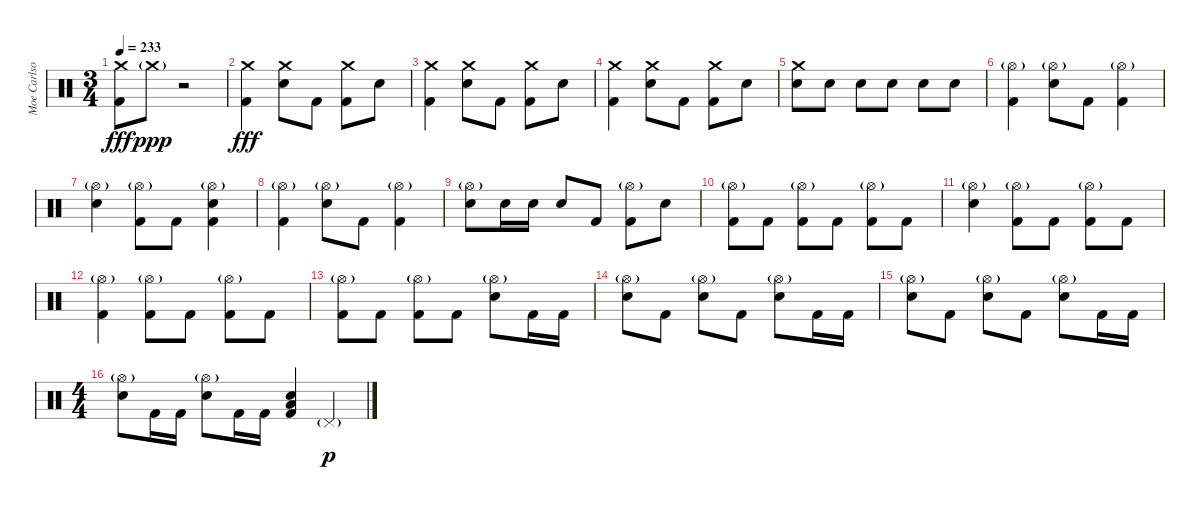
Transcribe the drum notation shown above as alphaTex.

\track ("Moe Carlson" "Moe Carlso") {instrument percussion}
\staff {score}
\articulation defaults
\ts (3 4)
\tempo 233
\clef neutral
\ks c
("Crash medium (hit)" "Kick (hit) 2").8{dy fff} "Crash medium (hit)"{g}.8{dy ppp} r.2 |
("Crash medium (hit)" "Kick (hit) 2").4{dy fff} ("Crash medium (hit)" "Electric Snare (hit)").8 "Kick (hit) 2".8 ("Crash medium (hit)" "Kick (hit) 2").8 "Electric Snare (hit)".8 |
("Crash medium (hit)" "Kick (hit) 2").4 ("Crash medium (hit)" "Electric Snare (hit)").8 "Kick (hit) 2".8 ("Crash medium (hit)" "Kick (hit) 2").8 "Electric Snare (hit)".8 |
("Crash medium (hit)" "Kick (hit) 2").4 ("Crash medium (hit)" "Electric Snare (hit)").8 "Kick (hit) 2".8 ("Crash medium (hit)" "Kick (hit) 2").8 "Electric Snare (hit)".8 |
("Crash medium (hit)" "Electric Snare (hit)").8 "Electric Snare (hit)".8 "Electric Snare (hit)".8 "Electric Snare (hit)".8 "Electric Snare (hit)".8 "Electric Snare (hit)".8 |
("Hi-Hat (open)"{g} "Kick (hit) 2").4 ("Hi-Hat (open)"{g} "Electric Snare (hit)").8 "Kick (hit) 2".8 ("Hi-Hat (open)"{g} "Kick (hit) 2").4 |
("Hi-Hat (open)"{g} "Electric Snare (hit)").4 ("Hi-Hat (open)"{g} "Kick (hit) 2").8 "Kick (hit) 2".8 ("Hi-Hat (open)"{g} "Electric Snare (hit)" "Kick (hit) 2").4 |
("Hi-Hat (open)"{g} "Kick (hit) 2").4 ("Hi-Hat (open)"{g} "Electric Snare (hit)").8 "Kick (hit) 2".8 ("Hi-Hat (open)"{g} "Kick (hit) 2").4 |
("Hi-Hat (open)"{g} "Electric Snare (hit)").8 "Electric Snare (hit)".16 "Electric Snare (hit)".16 "Electric Snare (hit)".8 "Kick (hit) 2".8 ("Hi-Hat (open)"{g} "Kick (hit) 2").8 "Electric Snare (hit)".8 |
("Hi-Hat (open)"{g} "Kick (hit) 2").8 "Kick (hit) 2".8 ("Hi-Hat (open)"{g} "Kick (hit) 2").8 "Kick (hit) 2".8 ("Hi-Hat (open)"{g} "Kick (hit) 2").8 "Kick (hit) 2".8 |
("Hi-Hat (open)"{g} "Electric Snare (hit)").4 ("Hi-Hat (open)"{g} "Kick (hit) 2").8 "Kick (hit) 2".8 ("Hi-Hat (open)"{g} "Kick (hit) 2").8 "Kick (hit) 2".8 |
("Hi-Hat (open)"{g} "Kick (hit) 2").4 ("Hi-Hat (open)"{g} "Kick (hit) 2").8 "Kick (hit) 2".8 ("Hi-Hat (open)"{g} "Kick (hit) 2").8 "Kick (hit) 2".8 |
("Hi-Hat (open)"{g} "Kick (hit) 2").8 "Kick (hit) 2".8 ("Hi-Hat (open)"{g} "Kick (hit) 2").8 "Kick (hit) 2".8 ("Hi-Hat (open)"{g} "Electric Snare (hit)").8 "Kick (hit) 2".16 "Kick (hit) 2".16 |
("Hi-Hat (open)"{g} "Electric Snare (hit)").8 "Kick (hit) 2".8 ("Hi-Hat (open)"{g} "Electric Snare (hit)").8 "Kick (hit) 2".8 ("Hi-Hat (open)"{g} "Electric Snare (hit)").8 "Kick (hit) 2".16 "Kick (hit) 2".16 |
("Hi-Hat (open)"{g} "Electric Snare (hit)").8 "Kick (hit) 2".8 ("Hi-Hat (open)"{g} "Electric Snare (hit)").8 "Kick (hit) 2".8 ("Hi-Hat (open)"{g} "Electric Snare (hit)").8 "Kick (hit) 2".16 "Kick (hit) 2".16 |
\ts (4 4)
("Hi-Hat (open)"{g} "Electric Snare (hit)").8 "Kick (hit) 2".16 "Kick (hit) 2".16 ("Hi-Hat (open)"{g} "Electric Snare (hit)").8 "Kick (hit) 2".16 "Kick (hit) 2".16 ("Electric Snare (hit)" "Low Floor Tom (hit)" "Kick (hit) 2").4 "Pedal Hi-Hat (hit)"{g}.4{dy p}
